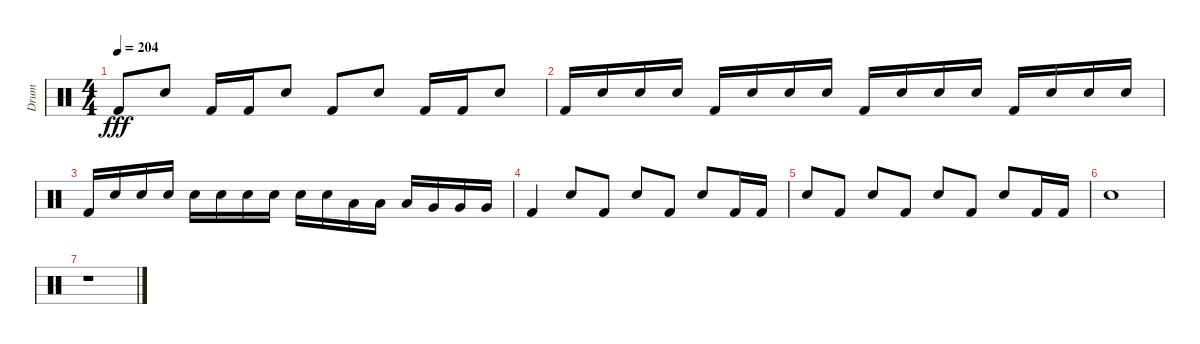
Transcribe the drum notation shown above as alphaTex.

\track ("Drum" "Drum") {instrument percussion}
\staff {score}
\articulation defaults
\ts (4 4)
\tempo 204
\clef neutral
\ks c "Kick (hit) 2".8{dy fff} "Electric Snare (hit)".8 "Kick (hit) 2".16 "Kick (hit) 2".16 "Electric Snare (hit)".8 "Kick (hit) 2".8 "Electric Snare (hit)".8 "Kick (hit) 2".16 "Kick (hit) 2".16 "Electric Snare (hit)".8
|
"Kick (hit) 2".16 "Electric Snare (hit)".16 "Electric Snare (hit)".16 "Electric Snare (hit)".16 "Kick (hit) 2".16 "Electric Snare (hit)".16 "Electric Snare (hit)".16 "Electric Snare (hit)".16 "Kick (hit) 2".16 "Electric Snare (hit)".16 "Electric Snare (hit)".16 "Electric Snare (hit)".16 "Kick (hit) 2".16 "Electric Snare (hit)".16 "Electric Snare (hit)".16 "Electric Snare (hit)".16 |
"Kick (hit) 2".16 "Electric Snare (hit)".16 "Electric Snare (hit)".16 "Electric Snare (hit)".16 "Electric Snare (hit)".16 "Electric Snare (hit)".16 "Electric Snare (hit)".16 "Electric Snare (hit)".16 "Electric Snare (hit)".16 "Electric Snare (hit)".16 "Low Tom (hit)".16 "Low Tom (hit)".16 "Low Tom (hit)".16 "Very Low Tom (hit)".16 "Very Low Tom (hit)".16 "Very Low Tom (hit)".16 |
"Kick (hit) 2".4 "Electric Snare (hit)".8 "Kick (hit) 2".8 "Electric Snare (hit)".8 "Kick (hit) 2".8 "Electric Snare (hit)".8 "Kick (hit) 2".16 "Kick (hit) 2".16 |
"Electric Snare (hit)".8 "Kick (hit) 2".8 "Electric Snare (hit)".8 "Kick (hit) 2".8 "Electric Snare (hit)".8 "Kick (hit) 2".8 "Electric Snare (hit)".8 "Kick (hit) 2".16 "Kick (hit) 2".16 |
"Electric Snare (hit)".1 |
r.1
